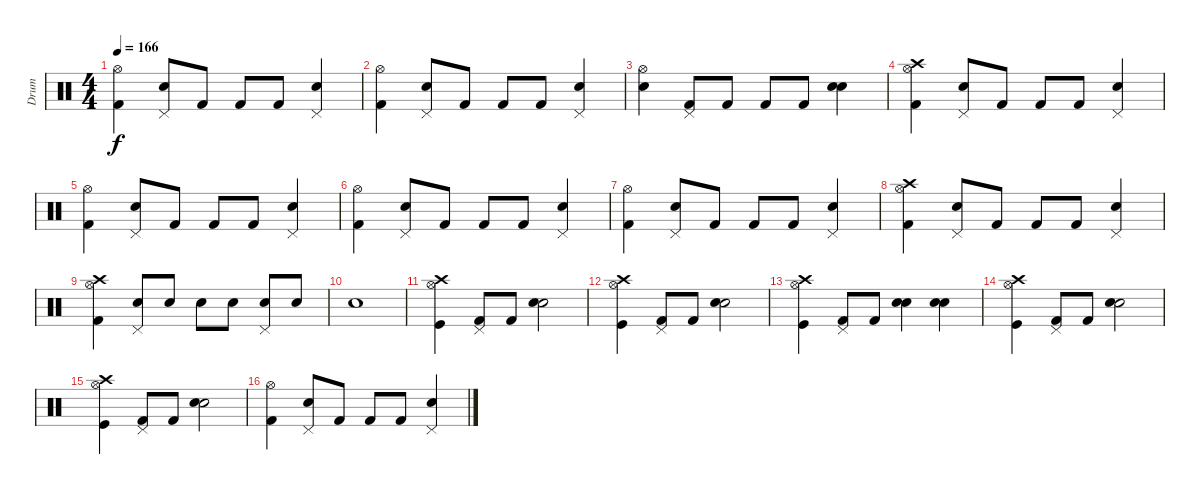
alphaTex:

\track ("Drum" "Drum") {instrument percussion}
\staff {score}
\articulation defaults
\ts (4 4)
\tempo 166
\clef neutral
\ks c
("Kick (hit) 2" "Hi-Hat (open)").4{dy f} ("Electric Snare (hit)" "Pedal Hi-Hat (hit)").8 "Kick (hit) 2".8 "Kick (hit) 2".8 "Kick (hit) 2".8 ("Electric Snare (hit)" "Pedal Hi-Hat (hit)").4 |
("Kick (hit) 2" "Hi-Hat (open)").4 ("Electric Snare (hit)" "Pedal Hi-Hat (hit)").8 "Kick (hit) 2".8 "Kick (hit) 2".8 "Kick (hit) 2".8 ("Electric Snare (hit)" "Pedal Hi-Hat (hit)").4 |
("Snare (hit) 2" "Hi-Hat (open)").4 ("Kick (hit) 2" "Pedal Hi-Hat (hit)").8 "Kick (hit) 2".8 "Kick (hit) 2".8 "Kick (hit) 2".8 ("Electric Snare (hit)" "Snare (hit) 2").4 |
("Kick (hit) 2" "Hi-Hat (open)" "Crash high (hit)").4 ("Electric Snare (hit)" "Pedal Hi-Hat (hit)").8 "Kick (hit) 2".8 "Kick (hit) 2".8 "Kick (hit) 2".8 ("Electric Snare (hit)" "Pedal Hi-Hat (hit)").4 |
("Kick (hit) 2" "Hi-Hat (open)").4 ("Electric Snare (hit)" "Pedal Hi-Hat (hit)").8 "Kick (hit) 2".8 "Kick (hit) 2".8 "Kick (hit) 2".8 ("Electric Snare (hit)" "Pedal Hi-Hat (hit)").4 |
("Kick (hit) 2" "Hi-Hat (open)").4 ("Electric Snare (hit)" "Pedal Hi-Hat (hit)").8 "Kick (hit) 2".8 "Kick (hit) 2".8 "Kick (hit) 2".8 ("Electric Snare (hit)" "Pedal Hi-Hat (hit)").4 |
("Kick (hit) 2" "Hi-Hat (open)").4 ("Electric Snare (hit)" "Pedal Hi-Hat (hit)").8 "Kick (hit) 2".8 "Kick (hit) 2".8 "Kick (hit) 2".8 ("Electric Snare (hit)" "Pedal Hi-Hat (hit)").4 |
("Kick (hit) 2" "Hi-Hat (open)" "Crash high (hit)").4 ("Electric Snare (hit)" "Pedal Hi-Hat (hit)").8 "Kick (hit) 2".8 "Kick (hit) 2".8 "Kick (hit) 2".8 ("Electric Snare (hit)" "Pedal Hi-Hat (hit)").4 |
("Kick (hit) 2" "Hi-Hat (open)" "Crash high (hit)").4 ("Electric Snare (hit)" "Pedal Hi-Hat (hit)").8 "Electric Snare (hit)".8 "Electric Snare (hit)".8 "Electric Snare (hit)".8 ("Electric Snare (hit)" "Pedal Hi-Hat (hit)").8 "Electric Snare (hit)".8 |
"Electric Snare (hit)".1 |
("Kick (hit)" "Hi-Hat (open)" "Crash high (hit)").4 ("Kick (hit) 2" "Pedal Hi-Hat (hit)").8 "Kick (hit) 2".8 ("Snare (hit) 2" "Metronome (bell)").2 |
("Kick (hit)" "Hi-Hat (open)" "Crash high (hit)").4 ("Kick (hit) 2" "Pedal Hi-Hat (hit)").8 "Kick (hit) 2".8 ("Snare (hit) 2" "Metronome (bell)").2 |
("Kick (hit)" "Hi-Hat (open)" "Crash high (hit)").4 ("Kick (hit) 2" "Pedal Hi-Hat (hit)").8 "Kick (hit) 2".8 ("Snare (hit) 2" "Metronome (bell)").4 ("Snare (hit) 2" "Metronome (bell)").4 |
("Kick (hit)" "Hi-Hat (open)" "Crash high (hit)").4 ("Kick (hit) 2" "Pedal Hi-Hat (hit)").8 "Kick (hit) 2".8 ("Snare (hit) 2" "Metronome (bell)").2 |
("Kick (hit)" "Hi-Hat (open)" "Crash high (hit)").4 ("Kick (hit) 2" "Pedal Hi-Hat (hit)").8 "Kick (hit) 2".8 ("Snare (hit) 2" "Metronome (bell)").2 |
("Kick (hit) 2" "Hi-Hat (open)").4 ("Electric Snare (hit)" "Pedal Hi-Hat (hit)").8 "Kick (hit) 2".8 "Kick (hit) 2".8 "Kick (hit) 2".8 ("Electric Snare (hit)" "Pedal Hi-Hat (hit)").4
